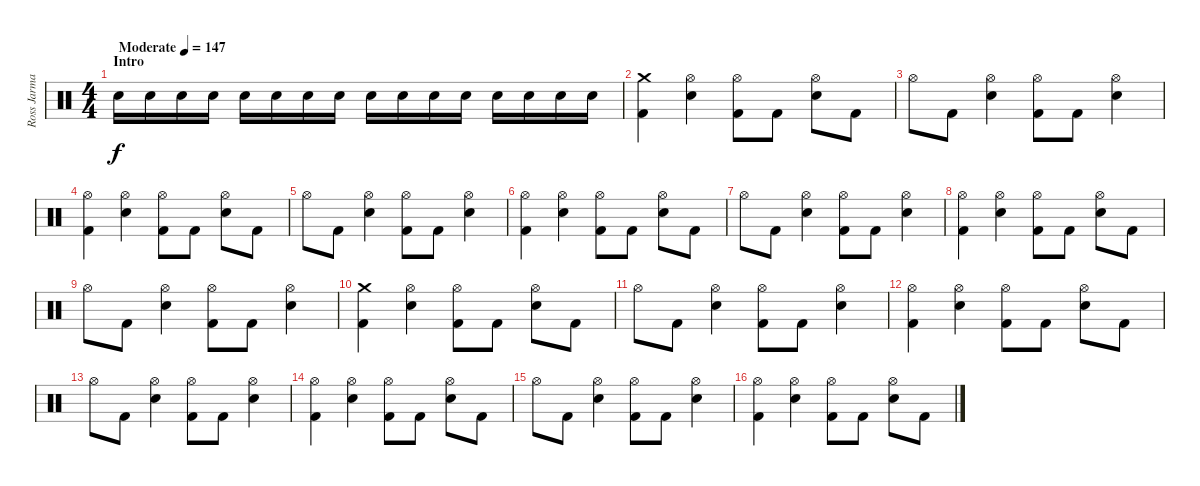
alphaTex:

\track ("Ross Jarman (Drums)" "Ross Jarma") {instrument percussion}
\staff {score}
\articulation defaults
\ts (4 4)
\section ("" "Intro")
\tempo (147 "Moderate")
\clef neutral
\ks c "Electric Snare (hit)".16{dy f} "Electric Snare (hit)".16 "Electric Snare (hit)".16 "Electric Snare (hit)".16 "Electric Snare (hit)".16 "Electric Snare (hit)".16 "Electric Snare (hit)".16 "Electric Snare (hit)".16 "Electric Snare (hit)".16 "Electric Snare (hit)".16 "Electric Snare (hit)".16 "Electric Snare (hit)".16 "Electric Snare (hit)".16 "Electric Snare (hit)".16 "Electric Snare (hit)".16 "Electric Snare (hit)".16
|
("Crash medium (hit)" "Kick (hit) 2").4 ("Hi-Hat (open)" "Electric Snare (hit)").4 ("Hi-Hat (open)" "Kick (hit) 2").8 "Kick (hit) 2".8 ("Hi-Hat (open)" "Electric Snare (hit)").8 "Kick (hit) 2".8 |
"Hi-Hat (open)".8 "Kick (hit) 2".8 ("Hi-Hat (open)" "Electric Snare (hit)").4 ("Hi-Hat (open)" "Kick (hit) 2").8 "Kick (hit) 2".8 ("Hi-Hat (open)" "Electric Snare (hit)").4 |
("Hi-Hat (open)" "Kick (hit) 2").4 ("Hi-Hat (open)" "Electric Snare (hit)").4 ("Hi-Hat (open)" "Kick (hit) 2").8 "Kick (hit) 2".8 ("Hi-Hat (open)" "Electric Snare (hit)").8 "Kick (hit) 2".8 |
"Hi-Hat (open)".8 "Kick (hit) 2".8 ("Hi-Hat (open)" "Electric Snare (hit)").4 ("Hi-Hat (open)" "Kick (hit) 2").8 "Kick (hit) 2".8 ("Hi-Hat (open)" "Electric Snare (hit)").4 |
("Hi-Hat (open)" "Kick (hit) 2").4 ("Hi-Hat (open)" "Electric Snare (hit)").4 ("Hi-Hat (open)" "Kick (hit) 2").8 "Kick (hit) 2".8 ("Hi-Hat (open)" "Electric Snare (hit)").8 "Kick (hit) 2".8 |
"Hi-Hat (open)".8 "Kick (hit) 2".8 ("Hi-Hat (open)" "Electric Snare (hit)").4 ("Hi-Hat (open)" "Kick (hit) 2").8 "Kick (hit) 2".8 ("Hi-Hat (open)" "Electric Snare (hit)").4 |
("Hi-Hat (open)" "Kick (hit) 2").4 ("Hi-Hat (open)" "Electric Snare (hit)").4 ("Hi-Hat (open)" "Kick (hit) 2").8 "Kick (hit) 2".8 ("Hi-Hat (open)" "Electric Snare (hit)").8 "Kick (hit) 2".8 |
"Hi-Hat (open)".8 "Kick (hit) 2".8 ("Hi-Hat (open)" "Electric Snare (hit)").4 ("Hi-Hat (open)" "Kick (hit) 2").8 "Kick (hit) 2".8 ("Hi-Hat (open)" "Electric Snare (hit)").4 |
("Crash medium (hit)" "Kick (hit) 2").4 ("Hi-Hat (open)" "Electric Snare (hit)").4 ("Hi-Hat (open)" "Kick (hit) 2").8 "Kick (hit) 2".8 ("Hi-Hat (open)" "Electric Snare (hit)").8 "Kick (hit) 2".8 |
"Hi-Hat (open)".8 "Kick (hit) 2".8 ("Hi-Hat (open)" "Electric Snare (hit)").4 ("Hi-Hat (open)" "Kick (hit) 2").8 "Kick (hit) 2".8 ("Hi-Hat (open)" "Electric Snare (hit)").4 |
("Hi-Hat (open)" "Kick (hit) 2").4 ("Hi-Hat (open)" "Electric Snare (hit)").4 ("Hi-Hat (open)" "Kick (hit) 2").8 "Kick (hit) 2".8 ("Hi-Hat (open)" "Electric Snare (hit)").8 "Kick (hit) 2".8 |
"Hi-Hat (open)".8 "Kick (hit) 2".8 ("Hi-Hat (open)" "Electric Snare (hit)").4 ("Hi-Hat (open)" "Kick (hit) 2").8 "Kick (hit) 2".8 ("Hi-Hat (open)" "Electric Snare (hit)").4 |
("Hi-Hat (open)" "Kick (hit) 2").4 ("Hi-Hat (open)" "Electric Snare (hit)").4 ("Hi-Hat (open)" "Kick (hit) 2").8 "Kick (hit) 2".8 ("Hi-Hat (open)" "Electric Snare (hit)").8 "Kick (hit) 2".8 |
"Hi-Hat (open)".8 "Kick (hit) 2".8 ("Hi-Hat (open)" "Electric Snare (hit)").4 ("Hi-Hat (open)" "Kick (hit) 2").8 "Kick (hit) 2".8 ("Hi-Hat (open)" "Electric Snare (hit)").4 |
("Hi-Hat (open)" "Kick (hit) 2").4 ("Hi-Hat (open)" "Electric Snare (hit)").4 ("Hi-Hat (open)" "Kick (hit) 2").8 "Kick (hit) 2".8 ("Hi-Hat (open)" "Electric Snare (hit)").8 "Kick (hit) 2".8
